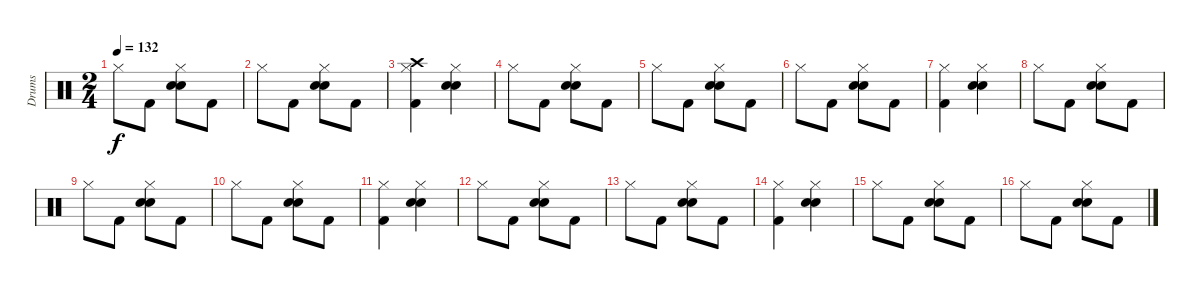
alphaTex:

\track ("Drums" "Drums") {instrument percussion}
\staff {score}
\articulation defaults
\ts (2 4)
\tempo 132
\clef neutral
\ks c "Hi-Hat (closed)".8{dy f} "Kick (hit) 2".8
("Electric Snare (hit)" "Electric Snare (hit)" "Hi-Hat (closed)").8 "Kick (hit) 2".8 |
"Hi-Hat (closed)".8 "Kick (hit) 2".8 ("Electric Snare (hit)" "Electric Snare (hit)" "Hi-Hat (closed)").8 "Kick (hit) 2".8 |
("Kick (hit) 2" "Crash high (hit)" "Hi-Hat (closed)").4 ("Electric Snare (hit)" "Electric Snare (hit)" "Hi-Hat (closed)").4 |
"Hi-Hat (closed)".8 "Kick (hit) 2".8 ("Electric Snare (hit)" "Electric Snare (hit)" "Hi-Hat (closed)").8 "Kick (hit) 2".8 |
"Hi-Hat (closed)".8 "Kick (hit) 2".8 ("Electric Snare (hit)" "Electric Snare (hit)" "Hi-Hat (closed)").8 "Kick (hit) 2".8 |
"Hi-Hat (closed)".8 "Kick (hit) 2".8 ("Electric Snare (hit)" "Electric Snare (hit)" "Hi-Hat (closed)").8 "Kick (hit) 2".8 |
("Kick (hit) 2" "Hi-Hat (closed)").4 ("Electric Snare (hit)" "Electric Snare (hit)" "Hi-Hat (closed)").4 |
"Hi-Hat (closed)".8 "Kick (hit) 2".8 ("Electric Snare (hit)" "Electric Snare (hit)" "Hi-Hat (closed)").8 "Kick (hit) 2".8 |
"Hi-Hat (closed)".8 "Kick (hit) 2".8 ("Electric Snare (hit)" "Electric Snare (hit)" "Hi-Hat (closed)").8 "Kick (hit) 2".8 |
"Hi-Hat (closed)".8 "Kick (hit) 2".8 ("Electric Snare (hit)" "Electric Snare (hit)" "Hi-Hat (closed)").8 "Kick (hit) 2".8 |
("Kick (hit) 2" "Hi-Hat (closed)").4 ("Electric Snare (hit)" "Electric Snare (hit)" "Hi-Hat (closed)").4 |
"Hi-Hat (closed)".8 "Kick (hit) 2".8 ("Electric Snare (hit)" "Electric Snare (hit)" "Hi-Hat (closed)").8 "Kick (hit) 2".8 |
"Hi-Hat (closed)".8 "Kick (hit) 2".8 ("Electric Snare (hit)" "Electric Snare (hit)" "Hi-Hat (closed)").8 "Kick (hit) 2".8 |
("Kick (hit) 2" "Hi-Hat (closed)").4 ("Electric Snare (hit)" "Electric Snare (hit)" "Hi-Hat (closed)").4 |
"Hi-Hat (closed)".8 "Kick (hit) 2".8 ("Electric Snare (hit)" "Electric Snare (hit)" "Hi-Hat (closed)").8 "Kick (hit) 2".8 |
"Hi-Hat (closed)".8 "Kick (hit) 2".8 ("Electric Snare (hit)" "Electric Snare (hit)" "Hi-Hat (closed)").8 "Kick (hit) 2".8
